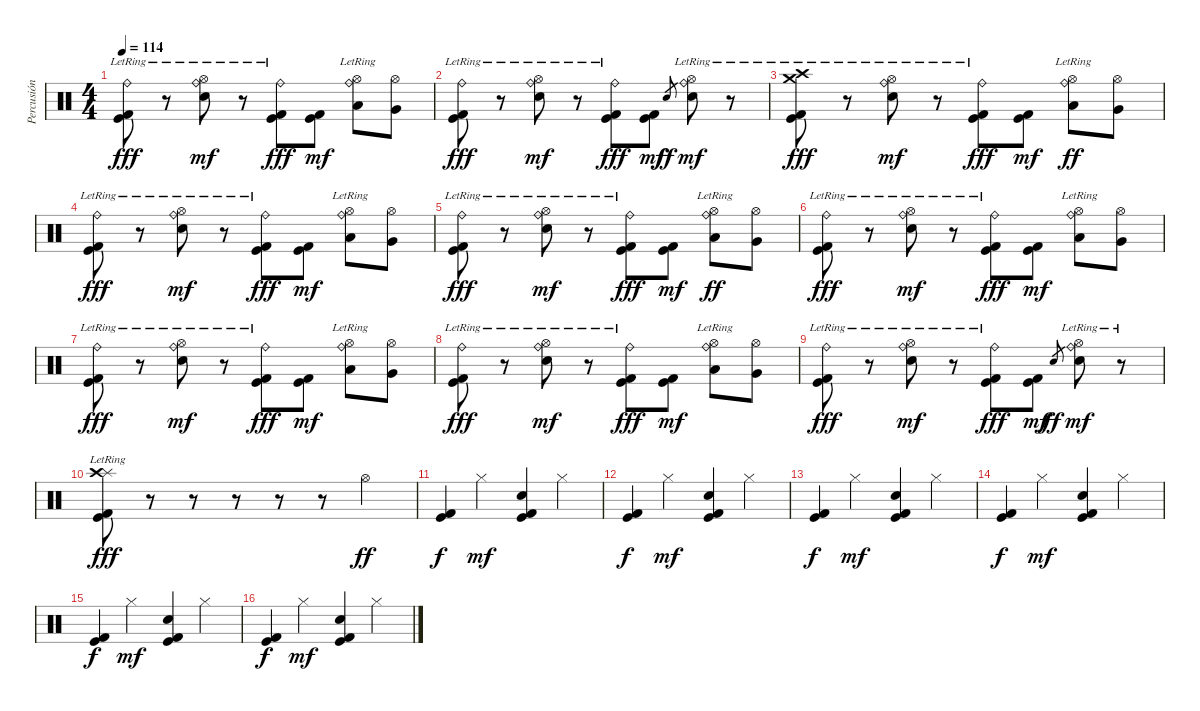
\track ("Percusión" "Percusión") {instrument percussion}
\staff {score}
\articulation defaults
\ts (4 4)
\tempo 114
\clef neutral
\ks c
("Ride (bell)"{lr} "Kick (hit) 2" "Kick (hit)").8{dy fff} r.8 ("Ride (bell)"{lr} "Hi-Hat (open)" "Electric Snare (hit)").8{dy mf} r.8 ("Ride (bell)"{lr} "Kick (hit) 2" "Kick (hit)").8{dy fff} ("Kick (hit) 2" "Kick (hit)").8{dy mf} ("Ride (bell)"{lr} "Hi-Hat (open)" "Low Tom (hit)").8 ("Hi-Hat (open)" "Very Low Tom (hit)").8 |
("Ride (bell)"{lr} "Kick (hit) 2" "Kick (hit)").8{dy fff} r.8 ("Ride (bell)"{lr} "Hi-Hat (open)" "Electric Snare (hit)").8{dy mf} r.8 ("Ride (bell)"{lr} "Kick (hit) 2" "Kick (hit)").8{dy fff} ("Kick (hit) 2" "Kick (hit)").8{dy mf} "Electric Snare (hit)".8{gr dy ff} ("Ride (bell)"{lr} "Hi-Hat (open)" "Electric Snare (hit)").8{dy mf} r.8 |
("Crash medium (hit)"{lr} "Crash high (hit)" "Kick (hit) 2" "Kick (hit)").8{dy fff} r.8 ("Ride (bell)"{lr} "Hi-Hat (open)" "Electric Snare (hit)").8{dy mf} r.8 ("Ride (bell)"{lr} "Kick (hit) 2" "Kick (hit)").8{dy fff} ("Kick (hit) 2" "Kick (hit)").8{dy mf} ("Ride (bell)"{lr} "Hi-Hat (open)" "Low Tom (hit)").8{dy ff} ("Hi-Hat (open)" "Very Low Tom (hit)").8 |
("Ride (bell)"{lr} "Kick (hit) 2" "Kick (hit)").8{dy fff} r.8 ("Ride (bell)"{lr} "Hi-Hat (open)" "Electric Snare (hit)").8{dy mf} r.8 ("Ride (bell)"{lr} "Kick (hit) 2" "Kick (hit)").8{dy fff} ("Kick (hit) 2" "Kick (hit)").8{dy mf} ("Ride (bell)"{lr} "Hi-Hat (open)" "Low Tom (hit)").8 ("Hi-Hat (open)" "Very Low Tom (hit)").8 |
("Ride (bell)"{lr} "Kick (hit) 2" "Kick (hit)").8{dy fff} r.8 ("Ride (bell)"{lr} "Hi-Hat (open)" "Electric Snare (hit)").8{dy mf} r.8 ("Ride (bell)"{lr} "Kick (hit) 2" "Kick (hit)").8{dy fff} ("Kick (hit) 2" "Kick (hit)").8{dy mf} ("Ride (bell)"{lr} "Hi-Hat (open)" "Low Tom (hit)").8{dy ff} ("Hi-Hat (open)" "Very Low Tom (hit)").8 |
("Ride (bell)"{lr} "Kick (hit) 2" "Kick (hit)").8{dy fff} r.8 ("Ride (bell)"{lr} "Hi-Hat (open)" "Electric Snare (hit)").8{dy mf} r.8 ("Ride (bell)"{lr} "Kick (hit) 2" "Kick (hit)").8{dy fff} ("Kick (hit) 2" "Kick (hit)").8{dy mf} ("Ride (bell)"{lr} "Hi-Hat (open)" "Low Tom (hit)").8 ("Hi-Hat (open)" "Very Low Tom (hit)").8 |
("Ride (bell)"{lr} "Kick (hit) 2" "Kick (hit)").8{dy fff} r.8 ("Ride (bell)"{lr} "Hi-Hat (open)" "Electric Snare (hit)").8{dy mf} r.8 ("Ride (bell)"{lr} "Kick (hit) 2" "Kick (hit)").8{dy fff} ("Kick (hit) 2" "Kick (hit)").8{dy mf} ("Ride (bell)"{lr} "Hi-Hat (open)" "Low Tom (hit)").8 ("Hi-Hat (open)" "Very Low Tom (hit)").8 |
("Ride (bell)"{lr} "Kick (hit) 2" "Kick (hit)").8{dy fff} r.8 ("Ride (bell)"{lr} "Hi-Hat (open)" "Electric Snare (hit)").8{dy mf} r.8 ("Ride (bell)"{lr} "Kick (hit) 2" "Kick (hit)").8{dy fff} ("Kick (hit) 2" "Kick (hit)").8{dy mf} ("Ride (bell)"{lr} "Hi-Hat (open)" "Low Tom (hit)").8 ("Hi-Hat (open)" "Very Low Tom (hit)").8 |
("Ride (bell)"{lr} "Kick (hit) 2" "Kick (hit)").8{dy fff} r.8 ("Ride (bell)"{lr} "Hi-Hat (open)" "Electric Snare (hit)").8{dy mf} r.8 ("Ride (bell)"{lr} "Kick (hit) 2" "Kick (hit)").8{dy fff} ("Kick (hit) 2" "Kick (hit)").8{dy mf} "Electric Snare (hit)".8{gr dy ff} ("Ride (bell)"{lr} "Hi-Hat (open)" "Electric Snare (hit)").8{dy mf} r.8 |
("Splash (hit)"{lr} "Crash high (hit)" "Kick (hit) 2" "Kick (hit)").8{dy fff} r.8 r.8 r.8 r.8 r.8 "Hi-Hat (open)".4{dy ff} |
("Kick (hit) 2" "Kick (hit)").4{dy f} "Hi-Hat (closed)".4{dy mf} ("Electric Snare (hit)" "Kick (hit) 2" "Kick (hit)").4 "Hi-Hat (closed)".4 |
("Kick (hit) 2" "Kick (hit)").4{dy f} "Hi-Hat (closed)".4{dy mf} ("Electric Snare (hit)" "Kick (hit) 2" "Kick (hit)").4 "Hi-Hat (closed)".4 |
("Kick (hit) 2" "Kick (hit)").4{dy f} "Hi-Hat (closed)".4{dy mf} ("Electric Snare (hit)" "Kick (hit) 2" "Kick (hit)").4 "Hi-Hat (closed)".4 |
("Kick (hit) 2" "Kick (hit)").4{dy f} "Hi-Hat (closed)".4{dy mf} ("Electric Snare (hit)" "Kick (hit) 2" "Kick (hit)").4 "Hi-Hat (closed)".4 |
("Kick (hit) 2" "Kick (hit)").4{dy f} "Hi-Hat (closed)".4{dy mf} ("Electric Snare (hit)" "Kick (hit) 2" "Kick (hit)").4 "Hi-Hat (closed)".4 |
("Kick (hit) 2" "Kick (hit)").4{dy f} "Hi-Hat (closed)".4{dy mf} ("Electric Snare (hit)" "Kick (hit) 2" "Kick (hit)").4 "Hi-Hat (closed)".4
